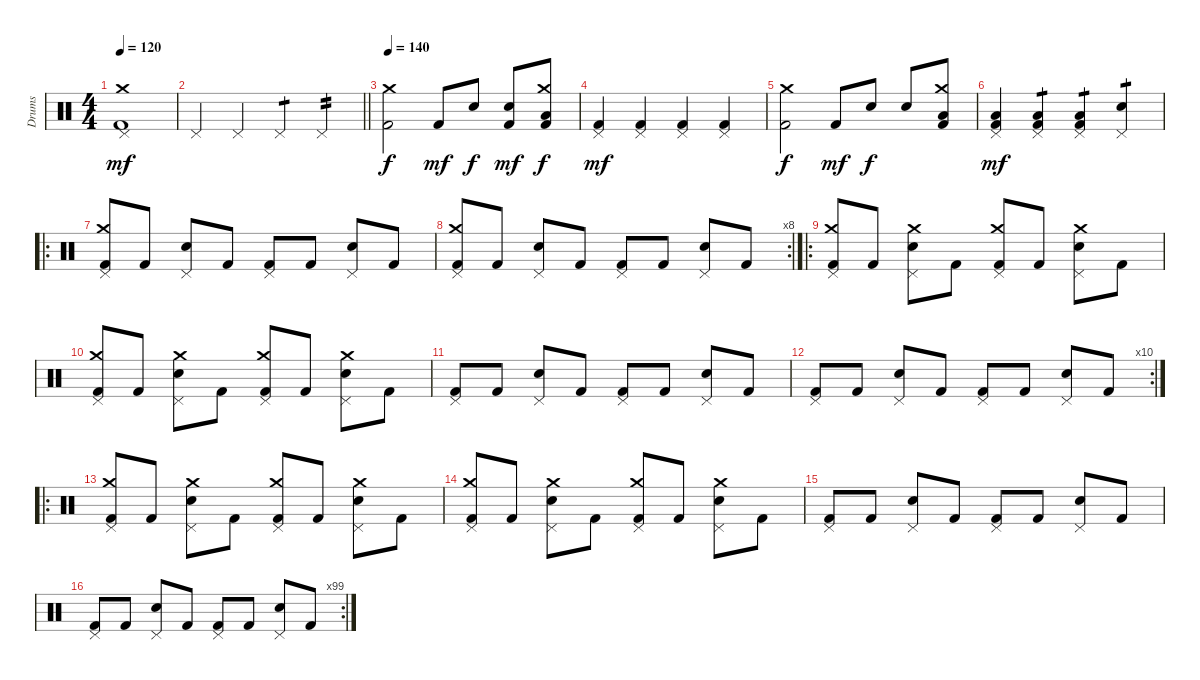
\track ("Drums" "Drums") {instrument percussion}
\staff {score}
\articulation defaults
\ts (4 4)
\tempo 120
\clef neutral
\ks c
("Kick (hit) 2" "Crash medium (hit)" "Pedal Hi-Hat (hit)").1{dy mf} |
\barLineRight lightlight "Pedal Hi-Hat (hit)".4 "Pedal Hi-Hat (hit)".4 "Pedal Hi-Hat (hit)".4{tp 1} "Pedal Hi-Hat (hit)".4{tp 2}
|
\tempo 140
("Kick (hit) 2" "Crash medium (hit)").2{dy f} "Kick (hit) 2".8{dy mf} "Snare (hit) 2".8{dy f} ("Kick (hit) 2" "Snare (hit) 2").8{dy mf} ("Low Floor Tom (hit)" "Kick (hit) 2" "Crash medium (hit)").8{dy f} |
("Kick (hit) 2" "Pedal Hi-Hat (hit)").4{dy mf} ("Kick (hit) 2" "Pedal Hi-Hat (hit)").4 ("Kick (hit) 2" "Pedal Hi-Hat (hit)").4 ("Kick (hit) 2" "Pedal Hi-Hat (hit)").4 |
("Kick (hit) 2" "Crash medium (hit)").2{dy f} "Kick (hit) 2".8{dy mf} "Snare (hit) 2".8{dy f} "Snare (hit) 2".8 ("Low Floor Tom (hit)" "Kick (hit) 2" "Crash medium (hit)").8 |
("Low Floor Tom (hit)" "Kick (hit) 2" "Pedal Hi-Hat (hit)").4{dy mf} ("Low Floor Tom (hit)" "Kick (hit) 2" "Pedal Hi-Hat (hit)").4{tp 1} ("Low Floor Tom (hit)" "Kick (hit) 2" "Pedal Hi-Hat (hit)").4{tp 1} ("Snare (hit) 2" "Pedal Hi-Hat (hit)").4{tp 1} |
\ro
("Kick (hit) 2" "Crash medium (hit)" "Pedal Hi-Hat (hit)").8 "Kick (hit) 2".8 ("Snare (hit) 2" "Pedal Hi-Hat (hit)").8 "Kick (hit) 2".8 ("Kick (hit) 2" "Pedal Hi-Hat (hit)").8 "Kick (hit) 2".8 ("Snare (hit) 2" "Pedal Hi-Hat (hit)").8 "Kick (hit) 2".8 |
\rc 8
("Kick (hit) 2" "Crash medium (hit)" "Pedal Hi-Hat (hit)").8 "Kick (hit) 2".8 ("Snare (hit) 2" "Pedal Hi-Hat (hit)").8 "Kick (hit) 2".8 ("Kick (hit) 2" "Pedal Hi-Hat (hit)").8 "Kick (hit) 2".8 ("Snare (hit) 2" "Pedal Hi-Hat (hit)").8 "Kick (hit) 2".8 |
\ro
("Kick (hit) 2" "Crash medium (hit)" "Pedal Hi-Hat (hit)").8 "Kick (hit) 2".8 ("Snare (hit) 2" "Crash medium (hit)" "Pedal Hi-Hat (hit)").8 "Kick (hit) 2".8 ("Kick (hit) 2" "Crash medium (hit)" "Pedal Hi-Hat (hit)").8 "Kick (hit) 2".8 ("Snare (hit) 2" "Crash medium (hit)" "Pedal Hi-Hat (hit)").8 "Kick (hit) 2".8 |
("Kick (hit) 2" "Crash medium (hit)" "Pedal Hi-Hat (hit)").8 "Kick (hit) 2".8 ("Snare (hit) 2" "Crash medium (hit)" "Pedal Hi-Hat (hit)").8 "Kick (hit) 2".8 ("Kick (hit) 2" "Crash medium (hit)" "Pedal Hi-Hat (hit)").8 "Kick (hit) 2".8 ("Snare (hit) 2" "Crash medium (hit)" "Pedal Hi-Hat (hit)").8 "Kick (hit) 2".8 |
("Kick (hit) 2" "Pedal Hi-Hat (hit)").8 "Kick (hit) 2".8 ("Snare (hit) 2" "Pedal Hi-Hat (hit)").8 "Kick (hit) 2".8 ("Kick (hit) 2" "Pedal Hi-Hat (hit)").8 "Kick (hit) 2".8 ("Snare (hit) 2" "Pedal Hi-Hat (hit)").8 "Kick (hit) 2".8 |
\rc 10
("Kick (hit) 2" "Pedal Hi-Hat (hit)").8 "Kick (hit) 2".8 ("Snare (hit) 2" "Pedal Hi-Hat (hit)").8 "Kick (hit) 2".8 ("Kick (hit) 2" "Pedal Hi-Hat (hit)").8 "Kick (hit) 2".8 ("Snare (hit) 2" "Pedal Hi-Hat (hit)").8 "Kick (hit) 2".8 |
\ro
("Kick (hit) 2" "Crash medium (hit)" "Pedal Hi-Hat (hit)").8 "Kick (hit) 2".8 ("Snare (hit) 2" "Crash medium (hit)" "Pedal Hi-Hat (hit)").8 "Kick (hit) 2".8 ("Kick (hit) 2" "Crash medium (hit)" "Pedal Hi-Hat (hit)").8 "Kick (hit) 2".8 ("Snare (hit) 2" "Crash medium (hit)" "Pedal Hi-Hat (hit)").8 "Kick (hit) 2".8 |
("Kick (hit) 2" "Crash medium (hit)" "Pedal Hi-Hat (hit)").8 "Kick (hit) 2".8 ("Snare (hit) 2" "Crash medium (hit)" "Pedal Hi-Hat (hit)").8 "Kick (hit) 2".8 ("Kick (hit) 2" "Crash medium (hit)" "Pedal Hi-Hat (hit)").8 "Kick (hit) 2".8 ("Snare (hit) 2" "Crash medium (hit)" "Pedal Hi-Hat (hit)").8 "Kick (hit) 2".8 |
("Kick (hit) 2" "Pedal Hi-Hat (hit)").8 "Kick (hit) 2".8 ("Snare (hit) 2" "Pedal Hi-Hat (hit)").8 "Kick (hit) 2".8 ("Kick (hit) 2" "Pedal Hi-Hat (hit)").8 "Kick (hit) 2".8 ("Snare (hit) 2" "Pedal Hi-Hat (hit)").8 "Kick (hit) 2".8 |
\rc 99
("Kick (hit) 2" "Pedal Hi-Hat (hit)").8 "Kick (hit) 2".8 ("Snare (hit) 2" "Pedal Hi-Hat (hit)").8 "Kick (hit) 2".8 ("Kick (hit) 2" "Pedal Hi-Hat (hit)").8 "Kick (hit) 2".8 ("Snare (hit) 2" "Pedal Hi-Hat (hit)").8 "Kick (hit) 2".8
